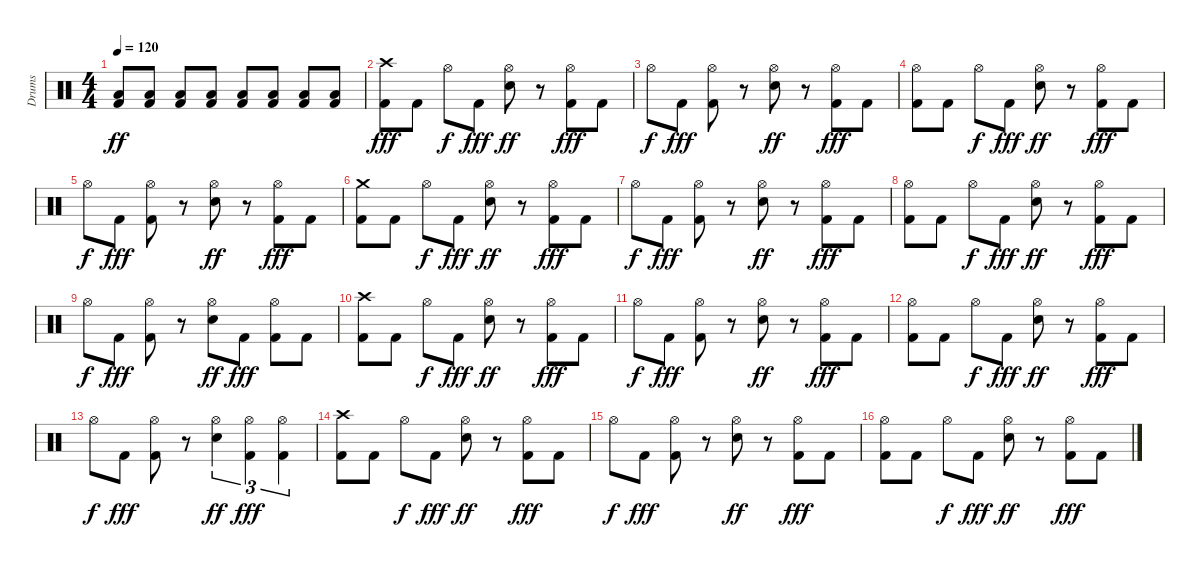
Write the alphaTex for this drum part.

\track ("Drums" "Drums") {instrument percussion}
\staff {score}
\articulation defaults
\ts (4 4)
\tempo 120
\clef neutral
\ks c
("Low Floor Tom (hit)" "Kick (hit) 2").8{dy ff} ("Low Floor Tom (hit)" "Kick (hit) 2").8 ("Low Floor Tom (hit)" "Kick (hit) 2").8 ("Low Floor Tom (hit)" "Kick (hit) 2").8 ("Low Floor Tom (hit)" "Kick (hit) 2").8 ("Low Floor Tom (hit)" "Kick (hit) 2").8 ("Low Floor Tom (hit)" "Kick (hit) 2").8 ("Low Floor Tom (hit)" "Kick (hit) 2").8 |
("Crash high (hit)" "Kick (hit) 2").8{dy fff} "Kick (hit) 2".8 "Hi-Hat (open)".8{dy f} "Kick (hit) 2".8{dy fff} ("Hi-Hat (open)" "Snare (hit) 2").8{dy ff} r.8 ("Hi-Hat (open)" "Kick (hit) 2").8{dy fff} "Kick (hit) 2".8 |
"Hi-Hat (open)".8{dy f} "Kick (hit) 2".8{dy fff} ("Hi-Hat (open)" "Kick (hit) 2").8 r.8 ("Hi-Hat (open)" "Snare (hit) 2").8{dy ff} r.8 ("Hi-Hat (open)" "Kick (hit) 2").8{dy fff} "Kick (hit) 2".8 |
("Hi-Hat (open)" "Kick (hit) 2").8 "Kick (hit) 2".8 "Hi-Hat (open)".8{dy f} "Kick (hit) 2".8{dy fff} ("Hi-Hat (open)" "Snare (hit) 2").8{dy ff} r.8 ("Hi-Hat (open)" "Kick (hit) 2").8{dy fff} "Kick (hit) 2".8 |
"Hi-Hat (open)".8{dy f} "Kick (hit) 2".8{dy fff} ("Hi-Hat (open)" "Kick (hit) 2").8 r.8 ("Hi-Hat (open)" "Snare (hit) 2").8{dy ff} r.8 ("Hi-Hat (open)" "Kick (hit) 2").8{dy fff} "Kick (hit) 2".8 |
("Crash medium (hit)" "Kick (hit) 2").8 "Kick (hit) 2".8 "Hi-Hat (open)".8{dy f} "Kick (hit) 2".8{dy fff} ("Hi-Hat (open)" "Snare (hit) 2").8{dy ff} r.8 ("Hi-Hat (open)" "Kick (hit) 2").8{dy fff} "Kick (hit) 2".8 |
"Hi-Hat (open)".8{dy f} "Kick (hit) 2".8{dy fff} ("Hi-Hat (open)" "Kick (hit) 2").8 r.8 ("Hi-Hat (open)" "Snare (hit) 2").8{dy ff} r.8 ("Hi-Hat (open)" "Kick (hit) 2").8{dy fff} "Kick (hit) 2".8 |
("Hi-Hat (open)" "Kick (hit) 2").8 "Kick (hit) 2".8 "Hi-Hat (open)".8{dy f} "Kick (hit) 2".8{dy fff} ("Hi-Hat (open)" "Snare (hit) 2").8{dy ff} r.8 ("Hi-Hat (open)" "Kick (hit) 2").8{dy fff} "Kick (hit) 2".8 |
"Hi-Hat (open)".8{dy f} "Kick (hit) 2".8{dy fff} ("Hi-Hat (open)" "Kick (hit) 2").8 r.8 ("Hi-Hat (open)" "Snare (hit) 2").8{dy ff} "Kick (hit) 2".8{dy fff} ("Hi-Hat (open)" "Kick (hit) 2").8 "Kick (hit) 2".8 |
("Crash high (hit)" "Kick (hit) 2").8 "Kick (hit) 2".8 "Hi-Hat (open)".8{dy f} "Kick (hit) 2".8{dy fff} ("Hi-Hat (open)" "Snare (hit) 2").8{dy ff} r.8 ("Hi-Hat (open)" "Kick (hit) 2").8{dy fff} "Kick (hit) 2".8 |
"Hi-Hat (open)".8{dy f} "Kick (hit) 2".8{dy fff} ("Hi-Hat (open)" "Kick (hit) 2").8 r.8 ("Hi-Hat (open)" "Snare (hit) 2").8{dy ff} r.8 ("Hi-Hat (open)" "Kick (hit) 2").8{dy fff} "Kick (hit) 2".8 |
("Hi-Hat (open)" "Kick (hit) 2").8 "Kick (hit) 2".8 "Hi-Hat (open)".8{dy f} "Kick (hit) 2".8{dy fff} ("Hi-Hat (open)" "Snare (hit) 2").8{dy ff} r.8 ("Hi-Hat (open)" "Kick (hit) 2").8{dy fff} "Kick (hit) 2".8 |
"Hi-Hat (open)".8{dy f} "Kick (hit) 2".8{dy fff} ("Hi-Hat (open)" "Kick (hit) 2").8 r.8 ("Hi-Hat (open)" "Snare (hit) 2").4{tu (3 2) dy ff} ("Hi-Hat (open)" "Kick (hit) 2").4{tu (3 2) dy fff} ("Hi-Hat (open)" "Kick (hit) 2").4{tu (3 2)} |
("Crash high (hit)" "Kick (hit) 2").8 "Kick (hit) 2".8 "Hi-Hat (open)".8{dy f} "Kick (hit) 2".8{dy fff} ("Hi-Hat (open)" "Snare (hit) 2").8{dy ff} r.8 ("Hi-Hat (open)" "Kick (hit) 2").8{dy fff} "Kick (hit) 2".8 |
"Hi-Hat (open)".8{dy f} "Kick (hit) 2".8{dy fff} ("Hi-Hat (open)" "Kick (hit) 2").8 r.8 ("Hi-Hat (open)" "Snare (hit) 2").8{dy ff} r.8 ("Hi-Hat (open)" "Kick (hit) 2").8{dy fff} "Kick (hit) 2".8 |
("Hi-Hat (open)" "Kick (hit) 2").8 "Kick (hit) 2".8 "Hi-Hat (open)".8{dy f} "Kick (hit) 2".8{dy fff} ("Hi-Hat (open)" "Snare (hit) 2").8{dy ff} r.8 ("Hi-Hat (open)" "Kick (hit) 2").8{dy fff} "Kick (hit) 2".8
